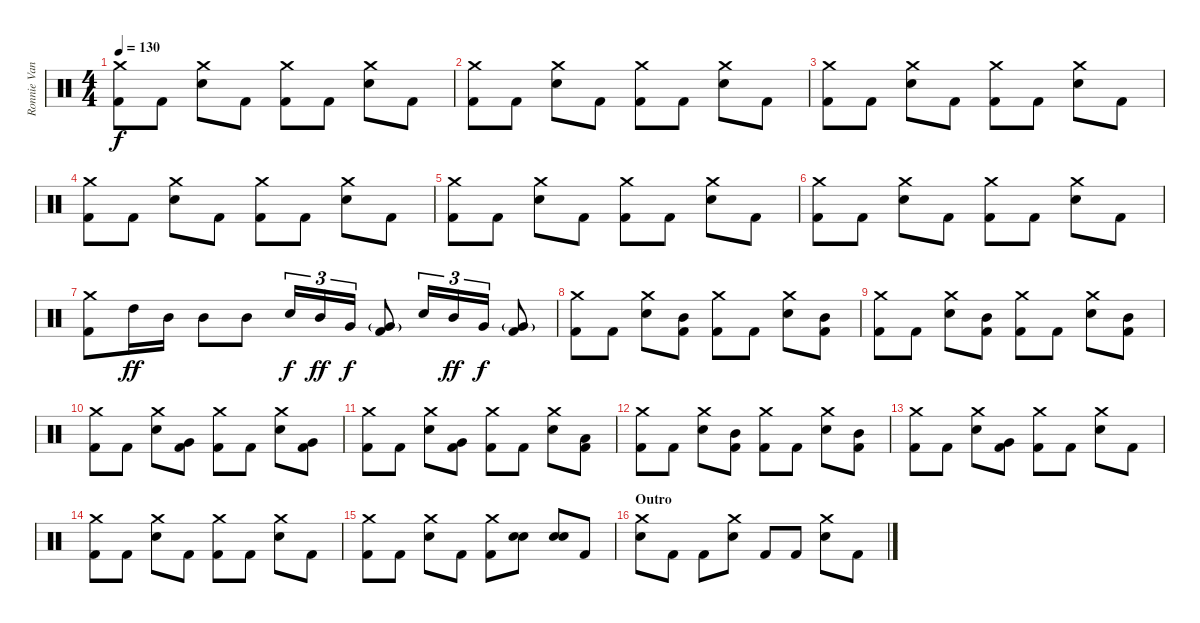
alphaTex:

\track ("Ronnie Vannucci Jr." "Ronnie Van") {instrument percussion}
\staff {score}
\articulation defaults
\ts (4 4)
\tempo 130
\clef neutral
\ks c
("Crash medium (hit)" "Kick (hit) 2").8{dy f} "Kick (hit) 2".8 ("Crash medium (hit)" "Electric Snare (hit)").8 "Kick (hit) 2".8 ("Crash medium (hit)" "Kick (hit) 2").8 "Kick (hit) 2".8 ("Crash medium (hit)" "Electric Snare (hit)").8 "Kick (hit) 2".8 |
("Crash medium (hit)" "Kick (hit) 2").8 "Kick (hit) 2".8 ("Crash medium (hit)" "Electric Snare (hit)").8 "Kick (hit) 2".8 ("Crash medium (hit)" "Kick (hit) 2").8 "Kick (hit) 2".8 ("Crash medium (hit)" "Electric Snare (hit)").8 "Kick (hit) 2".8 |
("Crash medium (hit)" "Kick (hit) 2").8 "Kick (hit) 2".8 ("Crash medium (hit)" "Electric Snare (hit)").8 "Kick (hit) 2".8 ("Crash medium (hit)" "Kick (hit) 2").8 "Kick (hit) 2".8 ("Crash medium (hit)" "Electric Snare (hit)").8 "Kick (hit) 2".8 |
("Crash medium (hit)" "Kick (hit) 2").8 "Kick (hit) 2".8 ("Crash medium (hit)" "Electric Snare (hit)").8 "Kick (hit) 2".8 ("Crash medium (hit)" "Kick (hit) 2").8 "Kick (hit) 2".8 ("Crash medium (hit)" "Electric Snare (hit)").8 "Kick (hit) 2".8 |
("Crash medium (hit)" "Kick (hit) 2").8 "Kick (hit) 2".8 ("Crash medium (hit)" "Electric Snare (hit)").8 "Kick (hit) 2".8 ("Crash medium (hit)" "Kick (hit) 2").8 "Kick (hit) 2".8 ("Crash medium (hit)" "Electric Snare (hit)").8 "Kick (hit) 2".8 |
("Crash medium (hit)" "Kick (hit) 2").8 "Kick (hit) 2".8 ("Crash medium (hit)" "Electric Snare (hit)").8 "Kick (hit) 2".8 ("Crash medium (hit)" "Kick (hit) 2").8 "Kick (hit) 2".8 ("Crash medium (hit)" "Electric Snare (hit)").8 "Kick (hit) 2".8 |
("Crash medium (hit)" "Kick (hit) 2").8 "High Tom (hit)".16{dy ff} "Mid Tom (hit)".16 "Mid Tom (hit)".8 "Mid Tom (hit)".8 "Electric Snare (hit)".16{tu (3 2) dy f} "Mid Tom (hit)".16{tu (3 2) dy ff} "Very Low Tom (hit)".16{tu (3 2) dy f} ("Very Low Tom (hit)"{g} "Kick (hit) 2").8 "Electric Snare (hit)".16{tu (3 2)} "Mid Tom (hit)".16{tu (3 2) dy ff} "Very Low Tom (hit)".16{tu (3 2) dy f} ("Very Low Tom (hit)"{g} "Kick (hit) 2").8 |
("Crash medium (hit)" "Kick (hit) 2").8 "Kick (hit) 2".8 ("Crash medium (hit)" "Electric Snare (hit)").8 ("Mid Tom (hit)" "Kick (hit) 2").8 ("Crash medium (hit)" "Kick (hit) 2").8 "Kick (hit) 2".8 ("Crash medium (hit)" "Electric Snare (hit)").8 ("Mid Tom (hit)" "Kick (hit) 2").8 |
("Crash medium (hit)" "Kick (hit) 2").8 "Kick (hit) 2".8 ("Crash medium (hit)" "Electric Snare (hit)").8 ("Mid Tom (hit)" "Kick (hit) 2").8 ("Crash medium (hit)" "Kick (hit) 2").8 "Kick (hit) 2".8 ("Crash medium (hit)" "Electric Snare (hit)").8 ("Mid Tom (hit)" "Kick (hit) 2").8 |
("Crash medium (hit)" "Kick (hit) 2").8 "Kick (hit) 2".8 ("Crash medium (hit)" "Electric Snare (hit)").8 ("Very Low Tom (hit)" "Kick (hit) 2").8 ("Crash medium (hit)" "Kick (hit) 2").8 "Kick (hit) 2".8 ("Crash medium (hit)" "Electric Snare (hit)").8 ("Very Low Tom (hit)" "Kick (hit) 2").8 |
("Crash medium (hit)" "Kick (hit) 2").8 "Kick (hit) 2".8 ("Crash medium (hit)" "Electric Snare (hit)").8 ("Very Low Tom (hit)" "Kick (hit) 2").8 ("Crash medium (hit)" "Kick (hit) 2").8 "Kick (hit) 2".8 ("Crash medium (hit)" "Electric Snare (hit)").8 ("Low Floor Tom (hit)" "Kick (hit) 2").8 |
("Crash medium (hit)" "Kick (hit) 2").8 "Kick (hit) 2".8 ("Crash medium (hit)" "Electric Snare (hit)").8 ("Mid Tom (hit)" "Kick (hit) 2").8 ("Crash medium (hit)" "Kick (hit) 2").8 "Kick (hit) 2".8 ("Crash medium (hit)" "Electric Snare (hit)").8 ("Mid Tom (hit)" "Kick (hit) 2").8 |
("Crash medium (hit)" "Kick (hit) 2").8 "Kick (hit) 2".8 ("Crash medium (hit)" "Electric Snare (hit)").8 ("Very Low Tom (hit)" "Kick (hit) 2").8 ("Crash medium (hit)" "Kick (hit) 2").8 "Kick (hit) 2".8 ("Crash medium (hit)" "Electric Snare (hit)").8 "Kick (hit) 2".8 |
("Crash medium (hit)" "Kick (hit) 2").8 "Kick (hit) 2".8 ("Crash medium (hit)" "Electric Snare (hit)").8 "Kick (hit) 2".8 ("Crash medium (hit)" "Kick (hit) 2").8 "Kick (hit) 2".8 ("Crash medium (hit)" "Electric Snare (hit)").8 "Kick (hit) 2".8 |
("Crash medium (hit)" "Kick (hit) 2").8 "Kick (hit) 2".8 ("Crash medium (hit)" "Electric Snare (hit)").8 "Kick (hit) 2".8 ("Crash medium (hit)" "Kick (hit) 2").8 ("Electric Snare (hit)" "Electric Snare (hit)").8{bu 120} ("Electric Snare (hit)" "Electric Snare (hit)").8{bu 120} "Kick (hit) 2".8 |
\section ("" "Outro")
("Crash medium (hit)" "Electric Snare (hit)").8 "Kick (hit) 2".8 "Kick (hit) 2".8 ("Crash medium (hit)" "Electric Snare (hit)").8 "Kick (hit) 2".8 "Kick (hit) 2".8 ("Crash medium (hit)" "Electric Snare (hit)").8 "Kick (hit) 2".8
